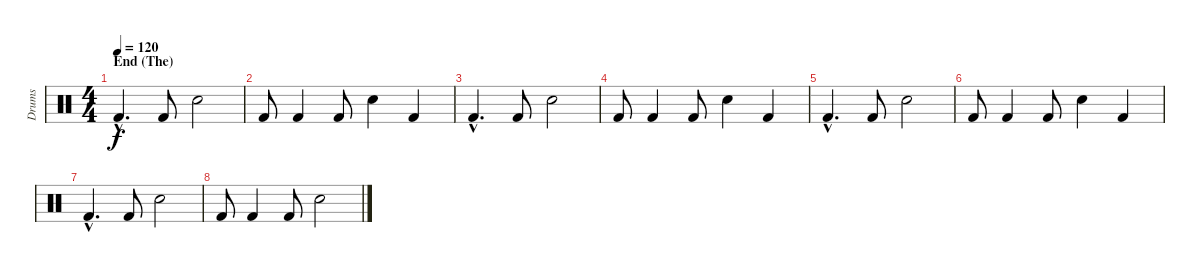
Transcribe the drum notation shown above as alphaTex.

\track ("Drums" "Drums") {instrument percussion}
\staff {score}
\articulation defaults
\ts (4 4)
\section ("" "End (The)")
\tempo 120
\clef neutral
\ks c "Kick (hit) 2"{hac}.4{d dy f} "Kick (hit) 2".8 "Snare (hit) 2".2
|
"Kick (hit) 2".8 "Kick (hit) 2".4 "Kick (hit) 2".8 "Snare (hit) 2".4 "Kick (hit) 2".4 |
"Kick (hit) 2"{hac}.4{d} "Kick (hit) 2".8 "Snare (hit) 2".2 |
"Kick (hit) 2".8 "Kick (hit) 2".4 "Kick (hit) 2".8 "Snare (hit) 2".4 "Kick (hit) 2".4 |
"Kick (hit) 2"{hac}.4{d} "Kick (hit) 2".8 "Snare (hit) 2".2 |
"Kick (hit) 2".8 "Kick (hit) 2".4 "Kick (hit) 2".8 "Snare (hit) 2".4 "Kick (hit) 2".4 |
"Kick (hit) 2"{hac}.4{d} "Kick (hit) 2".8 "Snare (hit) 2".2 |
"Kick (hit) 2".8 "Kick (hit) 2".4 "Kick (hit) 2".8 "Snare (hit) 2".2
